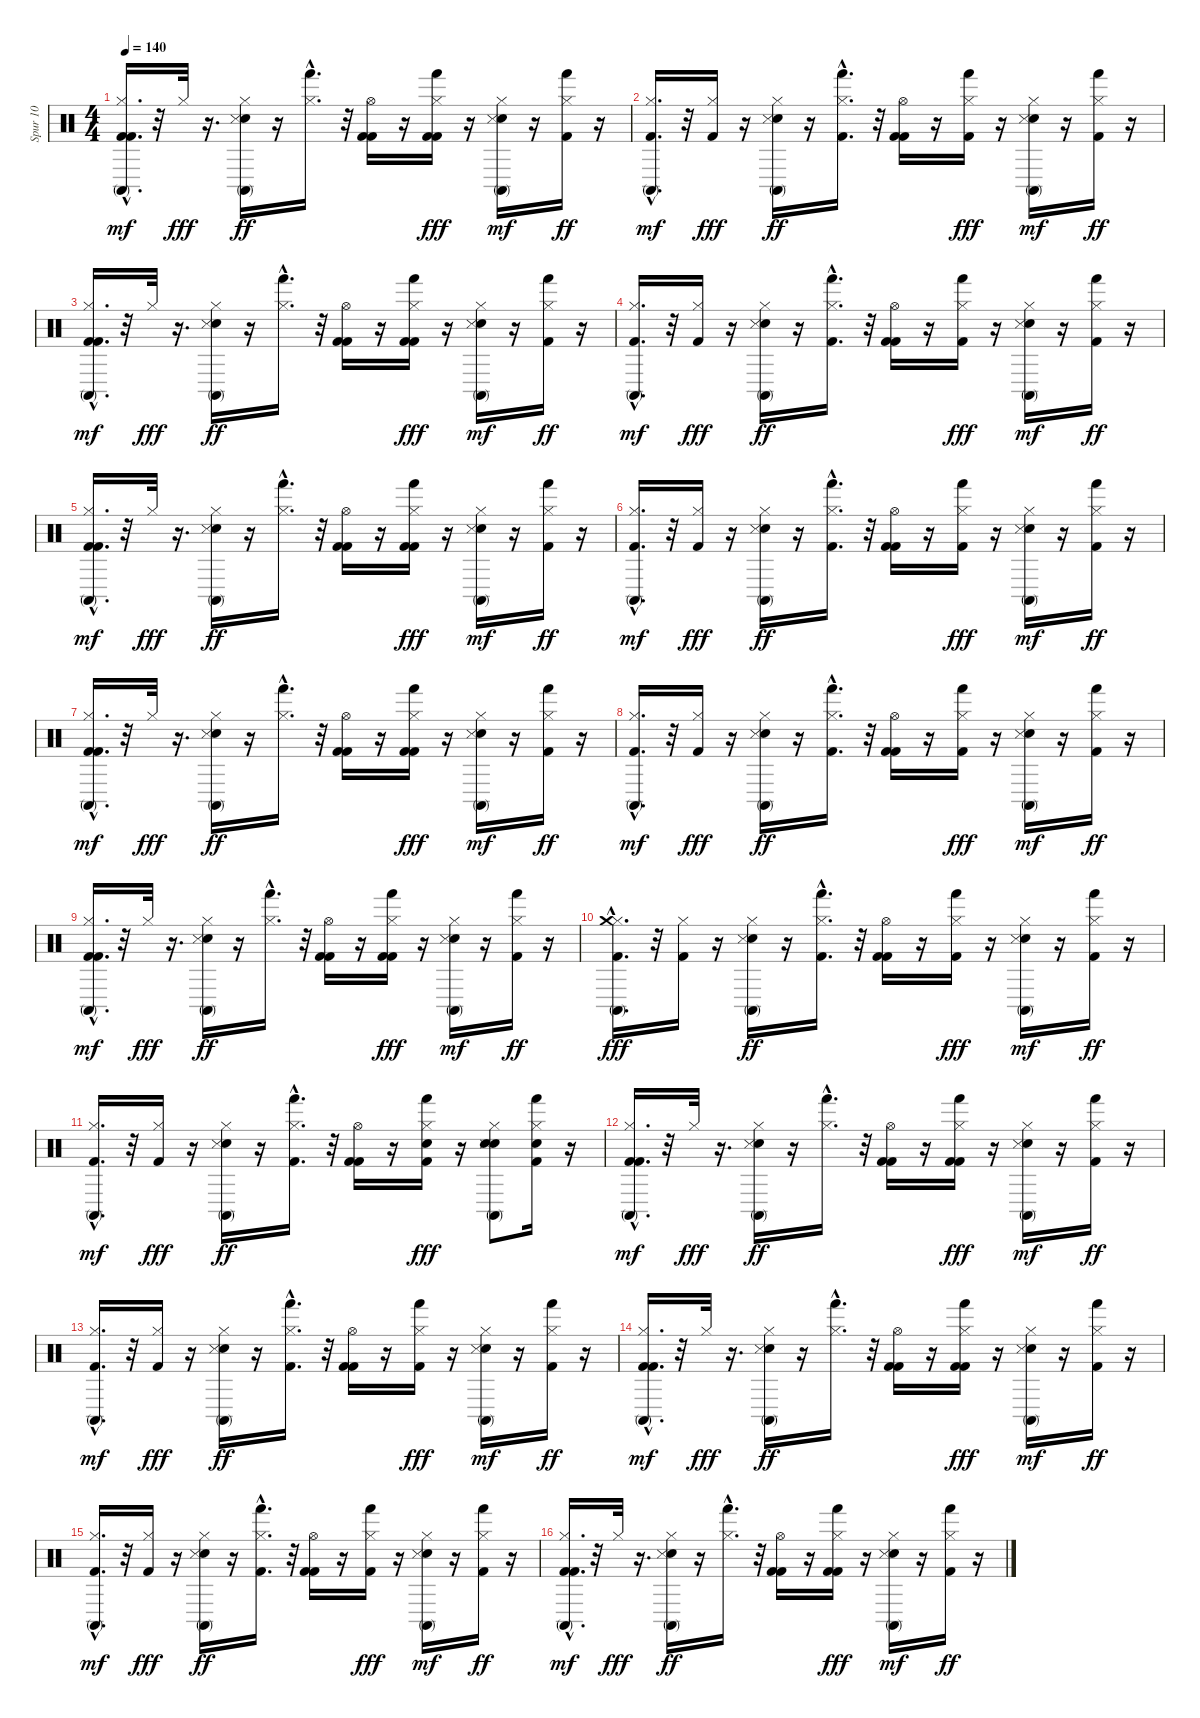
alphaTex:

\track ("Spur 10" "Spur 10") {instrument percussion}
\staff {score}
\articulation defaults
\ts (4 4)
\tempo 140
\clef neutral
\ks c
("Hi-Hat (closed)" "Kick (hit) 2" "Kick (hit) 2" "Conga high (mute)"{hac}).16{d dy mf} r.32 "Hi-Hat (closed)".32{dy fff} r.16{d} ("Hi-Hat (closed)" "Electric Snare (hit)" "Snare (side stick) 3" "Conga high (mute)").16{dy ff} r.16 ("Hi-Hat (closed)" "Hand (hit)"{hac}).16{d} r.32 ("Hi-Hat (open)" "Kick (hit) 2" "Kick (hit) 2").16 r.16 ("Hi-Hat (closed)" "Kick (hit) 2" "Kick (hit) 2" "Hand (hit)").16{dy fff} r.16 ("Hi-Hat (closed)" "Electric Snare (hit)" "Snare (side stick) 3" "Conga high (mute)").16{dy mf} r.16 ("Hi-Hat (closed)" "Kick (hit) 2" "Hand (hit)").16{dy ff} r.16 |
("Hi-Hat (closed)" "Kick (hit) 2" "Conga high (mute)"{hac}).16{d dy mf} r.32 ("Hi-Hat (closed)" "Kick (hit) 2").16{dy fff} r.16 ("Hi-Hat (closed)" "Electric Snare (hit)" "Snare (side stick) 3" "Conga high (mute)").16{dy ff} r.16 ("Hi-Hat (closed)" "Kick (hit) 2" "Hand (hit)"{hac}).16{d} r.32 ("Hi-Hat (open)" "Kick (hit) 2" "Kick (hit) 2").16 r.16 ("Hi-Hat (closed)" "Kick (hit) 2" "Hand (hit)").16{dy fff} r.16 ("Hi-Hat (closed)" "Electric Snare (hit)" "Snare (side stick) 3" "Conga high (mute)").16{dy mf} r.16 ("Hi-Hat (closed)" "Kick (hit) 2" "Hand (hit)").16{dy ff} r.16 |
("Hi-Hat (closed)" "Kick (hit) 2" "Kick (hit) 2" "Conga high (mute)"{hac}).16{d dy mf} r.32 "Hi-Hat (closed)".32{dy fff} r.16{d} ("Hi-Hat (closed)" "Electric Snare (hit)" "Snare (side stick) 3" "Conga high (mute)").16{dy ff} r.16 ("Hi-Hat (closed)" "Hand (hit)"{hac}).16{d} r.32 ("Hi-Hat (open)" "Kick (hit) 2" "Kick (hit) 2").16 r.16 ("Hi-Hat (closed)" "Kick (hit) 2" "Kick (hit) 2" "Hand (hit)").16{dy fff} r.16 ("Hi-Hat (closed)" "Electric Snare (hit)" "Snare (side stick) 3" "Conga high (mute)").16{dy mf} r.16 ("Hi-Hat (closed)" "Kick (hit) 2" "Hand (hit)").16{dy ff} r.16 |
("Hi-Hat (closed)" "Kick (hit) 2" "Conga high (mute)"{hac}).16{d dy mf} r.32 ("Hi-Hat (closed)" "Kick (hit) 2").16{dy fff} r.16 ("Hi-Hat (closed)" "Electric Snare (hit)" "Snare (side stick) 3" "Conga high (mute)").16{dy ff} r.16 ("Hi-Hat (closed)" "Kick (hit) 2" "Hand (hit)"{hac}).16{d} r.32 ("Hi-Hat (open)" "Kick (hit) 2" "Kick (hit) 2").16 r.16 ("Hi-Hat (closed)" "Kick (hit) 2" "Hand (hit)").16{dy fff} r.16 ("Hi-Hat (closed)" "Electric Snare (hit)" "Snare (side stick) 3" "Conga high (mute)").16{dy mf} r.16 ("Hi-Hat (closed)" "Kick (hit) 2" "Hand (hit)").16{dy ff} r.16 |
("Hi-Hat (closed)" "Kick (hit) 2" "Kick (hit) 2" "Conga high (mute)"{hac}).16{d dy mf} r.32 "Hi-Hat (closed)".32{dy fff} r.16{d} ("Hi-Hat (closed)" "Electric Snare (hit)" "Snare (side stick) 3" "Conga high (mute)").16{dy ff} r.16 ("Hi-Hat (closed)" "Hand (hit)"{hac}).16{d} r.32 ("Hi-Hat (open)" "Kick (hit) 2" "Kick (hit) 2").16 r.16 ("Hi-Hat (closed)" "Kick (hit) 2" "Kick (hit) 2" "Hand (hit)").16{dy fff} r.16 ("Hi-Hat (closed)" "Electric Snare (hit)" "Snare (side stick) 3" "Conga high (mute)").16{dy mf} r.16 ("Hi-Hat (closed)" "Kick (hit) 2" "Hand (hit)").16{dy ff} r.16 |
("Hi-Hat (closed)" "Kick (hit) 2" "Conga high (mute)"{hac}).16{d dy mf} r.32 ("Hi-Hat (closed)" "Kick (hit) 2").16{dy fff} r.16 ("Hi-Hat (closed)" "Electric Snare (hit)" "Snare (side stick) 3" "Conga high (mute)").16{dy ff} r.16 ("Hi-Hat (closed)" "Kick (hit) 2" "Hand (hit)"{hac}).16{d} r.32 ("Hi-Hat (open)" "Kick (hit) 2" "Kick (hit) 2").16 r.16 ("Hi-Hat (closed)" "Kick (hit) 2" "Hand (hit)").16{dy fff} r.16 ("Hi-Hat (closed)" "Electric Snare (hit)" "Snare (side stick) 3" "Conga high (mute)").16{dy mf} r.16 ("Hi-Hat (closed)" "Kick (hit) 2" "Hand (hit)").16{dy ff} r.16 |
("Hi-Hat (closed)" "Kick (hit) 2" "Kick (hit) 2" "Conga high (mute)"{hac}).16{d dy mf} r.32 "Hi-Hat (closed)".32{dy fff} r.16{d} ("Hi-Hat (closed)" "Electric Snare (hit)" "Snare (side stick) 3" "Conga high (mute)").16{dy ff} r.16 ("Hi-Hat (closed)" "Hand (hit)"{hac}).16{d} r.32 ("Hi-Hat (open)" "Kick (hit) 2" "Kick (hit) 2").16 r.16 ("Hi-Hat (closed)" "Kick (hit) 2" "Kick (hit) 2" "Hand (hit)").16{dy fff} r.16 ("Hi-Hat (closed)" "Electric Snare (hit)" "Snare (side stick) 3" "Conga high (mute)").16{dy mf} r.16 ("Hi-Hat (closed)" "Kick (hit) 2" "Hand (hit)").16{dy ff} r.16 |
("Hi-Hat (closed)" "Kick (hit) 2" "Conga high (mute)"{hac}).16{d dy mf} r.32 ("Hi-Hat (closed)" "Kick (hit) 2").16{dy fff} r.16 ("Hi-Hat (closed)" "Electric Snare (hit)" "Snare (side stick) 3" "Conga high (mute)").16{dy ff} r.16 ("Hi-Hat (closed)" "Kick (hit) 2" "Hand (hit)"{hac}).16{d} r.32 ("Hi-Hat (open)" "Kick (hit) 2" "Kick (hit) 2").16 r.16 ("Hi-Hat (closed)" "Kick (hit) 2" "Hand (hit)").16{dy fff} r.16 ("Hi-Hat (closed)" "Electric Snare (hit)" "Snare (side stick) 3" "Conga high (mute)").16{dy mf} r.16 ("Hi-Hat (closed)" "Kick (hit) 2" "Hand (hit)").16{dy ff} r.16 |
("Hi-Hat (closed)" "Kick (hit) 2" "Kick (hit) 2" "Conga high (mute)"{hac}).16{d dy mf} r.32 "Hi-Hat (closed)".32{dy fff} r.16{d} ("Hi-Hat (closed)" "Electric Snare (hit)" "Snare (side stick) 3" "Conga high (mute)").16{dy ff} r.16 ("Hi-Hat (closed)" "Hand (hit)"{hac}).16{d} r.32 ("Hi-Hat (open)" "Kick (hit) 2" "Kick (hit) 2").16 r.16 ("Hi-Hat (closed)" "Kick (hit) 2" "Kick (hit) 2" "Hand (hit)").16{dy fff} r.16 ("Hi-Hat (closed)" "Electric Snare (hit)" "Snare (side stick) 3" "Conga high (mute)").16{dy mf} r.16 ("Hi-Hat (closed)" "Kick (hit) 2" "Hand (hit)").16{dy ff} r.16 |
("Hi-Hat (closed)" "Kick (hit) 2" "Conga high (mute)"{hac} "Crash medium (hit)").16{d dy fff} r.32 ("Hi-Hat (closed)" "Kick (hit) 2").16 r.16 ("Hi-Hat (closed)" "Electric Snare (hit)" "Snare (side stick) 3" "Conga high (mute)").16{dy ff} r.16 ("Hi-Hat (closed)" "Kick (hit) 2" "Hand (hit)"{hac}).16{d} r.32 ("Hi-Hat (open)" "Kick (hit) 2" "Kick (hit) 2").16 r.16 ("Hi-Hat (closed)" "Kick (hit) 2" "Hand (hit)").16{dy fff} r.16 ("Hi-Hat (closed)" "Electric Snare (hit)" "Snare (side stick) 3" "Conga high (mute)").16{dy mf} r.16 ("Hi-Hat (closed)" "Kick (hit) 2" "Hand (hit)").16{dy ff} r.16 |
("Hi-Hat (closed)" "Kick (hit) 2" "Conga high (mute)"{hac}).16{d dy mf} r.32 ("Hi-Hat (closed)" "Kick (hit) 2").16{dy fff} r.16 ("Hi-Hat (closed)" "Electric Snare (hit)" "Snare (side stick) 3" "Conga high (mute)").16{dy ff} r.16 ("Hi-Hat (closed)" "Kick (hit) 2" "Hand (hit)"{hac}).16{d} r.32 ("Hi-Hat (open)" "Kick (hit) 2" "Kick (hit) 2").16 r.16 ("Hi-Hat (closed)" "Kick (hit) 2" "Hand (hit)" "Electric Snare (hit)").16{dy fff} r.16 ("Hi-Hat (closed)" "Electric Snare (hit)" "Snare (side stick) 3" "Conga high (mute)" "Electric Snare (hit)").8 ("Hi-Hat (closed)" "Kick (hit) 2" "Hand (hit)" "Electric Snare (hit)").16 r.16 |
("Hi-Hat (closed)" "Kick (hit) 2" "Kick (hit) 2" "Conga high (mute)"{hac}).16{d dy mf} r.32 "Hi-Hat (closed)".32{dy fff} r.16{d} ("Hi-Hat (closed)" "Electric Snare (hit)" "Snare (side stick) 3" "Conga high (mute)").16{dy ff} r.16 ("Hi-Hat (closed)" "Hand (hit)"{hac}).16{d} r.32 ("Hi-Hat (open)" "Kick (hit) 2" "Kick (hit) 2").16 r.16 ("Hi-Hat (closed)" "Kick (hit) 2" "Kick (hit) 2" "Hand (hit)").16{dy fff} r.16 ("Hi-Hat (closed)" "Electric Snare (hit)" "Snare (side stick) 3" "Conga high (mute)").16{dy mf} r.16 ("Hi-Hat (closed)" "Kick (hit) 2" "Hand (hit)").16{dy ff} r.16 |
("Hi-Hat (closed)" "Kick (hit) 2" "Conga high (mute)"{hac}).16{d dy mf} r.32 ("Hi-Hat (closed)" "Kick (hit) 2").16{dy fff} r.16 ("Hi-Hat (closed)" "Electric Snare (hit)" "Snare (side stick) 3" "Conga high (mute)").16{dy ff} r.16 ("Hi-Hat (closed)" "Kick (hit) 2" "Hand (hit)"{hac}).16{d} r.32 ("Hi-Hat (open)" "Kick (hit) 2" "Kick (hit) 2").16 r.16 ("Hi-Hat (closed)" "Kick (hit) 2" "Hand (hit)").16{dy fff} r.16 ("Hi-Hat (closed)" "Electric Snare (hit)" "Snare (side stick) 3" "Conga high (mute)").16{dy mf} r.16 ("Hi-Hat (closed)" "Kick (hit) 2" "Hand (hit)").16{dy ff} r.16 |
("Hi-Hat (closed)" "Kick (hit) 2" "Kick (hit) 2" "Conga high (mute)"{hac}).16{d dy mf} r.32 "Hi-Hat (closed)".32{dy fff} r.16{d} ("Hi-Hat (closed)" "Electric Snare (hit)" "Snare (side stick) 3" "Conga high (mute)").16{dy ff} r.16 ("Hi-Hat (closed)" "Hand (hit)"{hac}).16{d} r.32 ("Hi-Hat (open)" "Kick (hit) 2" "Kick (hit) 2").16 r.16 ("Hi-Hat (closed)" "Kick (hit) 2" "Kick (hit) 2" "Hand (hit)").16{dy fff} r.16 ("Hi-Hat (closed)" "Electric Snare (hit)" "Snare (side stick) 3" "Conga high (mute)").16{dy mf} r.16 ("Hi-Hat (closed)" "Kick (hit) 2" "Hand (hit)").16{dy ff} r.16 |
("Hi-Hat (closed)" "Kick (hit) 2" "Conga high (mute)"{hac}).16{d dy mf} r.32 ("Hi-Hat (closed)" "Kick (hit) 2").16{dy fff} r.16 ("Hi-Hat (closed)" "Electric Snare (hit)" "Snare (side stick) 3" "Conga high (mute)").16{dy ff} r.16 ("Hi-Hat (closed)" "Kick (hit) 2" "Hand (hit)"{hac}).16{d} r.32 ("Hi-Hat (open)" "Kick (hit) 2" "Kick (hit) 2").16 r.16 ("Hi-Hat (closed)" "Kick (hit) 2" "Hand (hit)").16{dy fff} r.16 ("Hi-Hat (closed)" "Electric Snare (hit)" "Snare (side stick) 3" "Conga high (mute)").16{dy mf} r.16 ("Hi-Hat (closed)" "Kick (hit) 2" "Hand (hit)").16{dy ff} r.16 |
("Hi-Hat (closed)" "Kick (hit) 2" "Kick (hit) 2" "Conga high (mute)"{hac}).16{d dy mf} r.32 "Hi-Hat (closed)".32{dy fff} r.16{d} ("Hi-Hat (closed)" "Electric Snare (hit)" "Snare (side stick) 3" "Conga high (mute)").16{dy ff} r.16 ("Hi-Hat (closed)" "Hand (hit)"{hac}).16{d} r.32 ("Hi-Hat (open)" "Kick (hit) 2" "Kick (hit) 2").16 r.16 ("Hi-Hat (closed)" "Kick (hit) 2" "Kick (hit) 2" "Hand (hit)").16{dy fff} r.16 ("Hi-Hat (closed)" "Electric Snare (hit)" "Snare (side stick) 3" "Conga high (mute)").16{dy mf} r.16 ("Hi-Hat (closed)" "Kick (hit) 2" "Hand (hit)").16{dy ff} r.16
